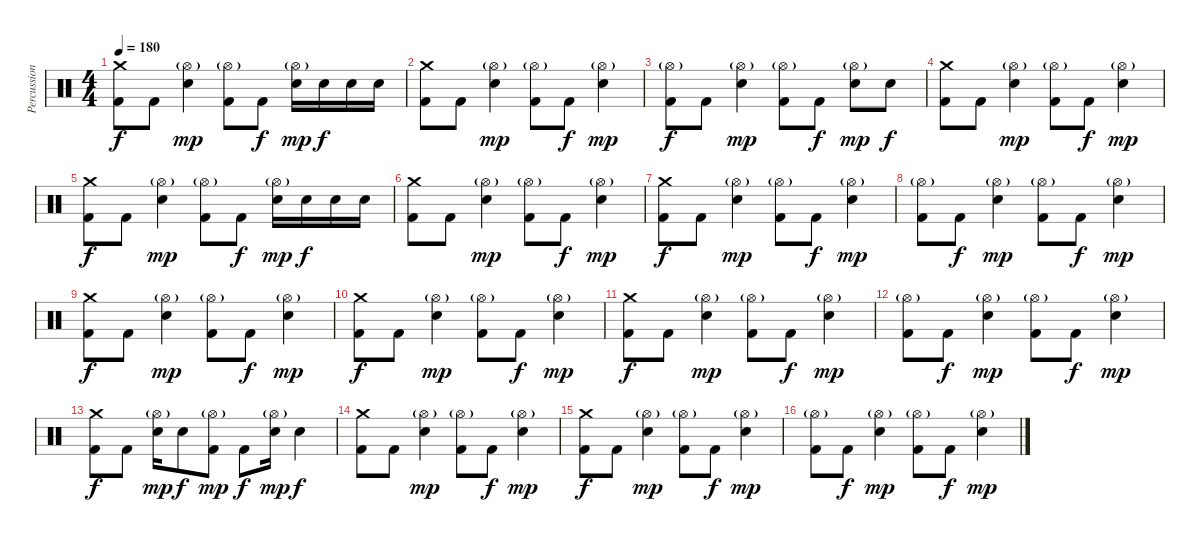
\track ("Percussions" "Percussion") {instrument percussion}
\staff {score}
\articulation defaults
\ts (4 4)
\tempo 180
\clef neutral
\ks c
("Crash medium (hit)" "Kick (hit) 2").8{dy f} "Kick (hit) 2".8 ("Snare (hit) 2" "Hi-Hat (open)"{g}).4{dy mp} ("Hi-Hat (open)"{g} "Kick (hit) 2").8 "Kick (hit) 2".8{dy f} ("Snare (hit) 2" "Hi-Hat (open)"{g}).16{dy mp} "Snare (hit) 2".16{dy f} "Snare (hit) 2".16 "Snare (hit) 2".16 |
("Crash medium (hit)" "Kick (hit) 2").8 "Kick (hit) 2".8 ("Snare (hit) 2" "Hi-Hat (open)"{g}).4{dy mp} ("Hi-Hat (open)"{g} "Kick (hit) 2").8 "Kick (hit) 2".8{dy f} ("Snare (hit) 2" "Hi-Hat (open)"{g}).4{dy mp} |
("Hi-Hat (open)"{g} "Kick (hit) 2").8{dy f} "Kick (hit) 2".8 ("Snare (hit) 2" "Hi-Hat (open)"{g}).4{dy mp} ("Hi-Hat (open)"{g} "Kick (hit) 2").8 "Kick (hit) 2".8{dy f} ("Snare (hit) 2" "Hi-Hat (open)"{g}).8{dy mp} "Snare (hit) 2".8{dy f} |
("Crash medium (hit)" "Kick (hit) 2").8 "Kick (hit) 2".8 ("Snare (hit) 2" "Hi-Hat (open)"{g}).4{dy mp} ("Hi-Hat (open)"{g} "Kick (hit) 2").8 "Kick (hit) 2".8{dy f} ("Snare (hit) 2" "Hi-Hat (open)"{g}).4{dy mp} |
("Crash medium (hit)" "Kick (hit) 2").8{dy f} "Kick (hit) 2".8 ("Snare (hit) 2" "Hi-Hat (open)"{g}).4{dy mp} ("Hi-Hat (open)"{g} "Kick (hit) 2").8 "Kick (hit) 2".8{dy f} ("Snare (hit) 2" "Hi-Hat (open)"{g}).16{dy mp} "Snare (hit) 2".16{dy f} "Snare (hit) 2".16 "Snare (hit) 2".16 |
("Crash medium (hit)" "Kick (hit) 2").8 "Kick (hit) 2".8 ("Snare (hit) 2" "Hi-Hat (open)"{g}).4{dy mp} ("Hi-Hat (open)"{g} "Kick (hit) 2").8 "Kick (hit) 2".8{dy f} ("Snare (hit) 2" "Hi-Hat (open)"{g}).4{dy mp} |
("Crash medium (hit)" "Kick (hit) 2").8{dy f} "Kick (hit) 2".8 ("Snare (hit) 2" "Hi-Hat (open)"{g}).4{dy mp} ("Hi-Hat (open)"{g} "Kick (hit) 2").8 "Kick (hit) 2".8{dy f} ("Snare (hit) 2" "Hi-Hat (open)"{g}).4{dy mp} |
("Hi-Hat (open)"{g} "Kick (hit) 2").8 "Kick (hit) 2".8{dy f} ("Snare (hit) 2" "Hi-Hat (open)"{g}).4{dy mp} ("Hi-Hat (open)"{g} "Kick (hit) 2").8 "Kick (hit) 2".8{dy f} ("Snare (hit) 2" "Hi-Hat (open)"{g}).4{dy mp} |
("Crash medium (hit)" "Kick (hit) 2").8{dy f} "Kick (hit) 2".8 ("Snare (hit) 2" "Hi-Hat (open)"{g}).4{dy mp} ("Hi-Hat (open)"{g} "Kick (hit) 2").8 "Kick (hit) 2".8{dy f} ("Snare (hit) 2" "Hi-Hat (open)"{g}).4{dy mp} |
("Crash medium (hit)" "Kick (hit) 2").8{dy f} "Kick (hit) 2".8 ("Snare (hit) 2" "Hi-Hat (open)"{g}).4{dy mp} ("Hi-Hat (open)"{g} "Kick (hit) 2").8 "Kick (hit) 2".8{dy f} ("Snare (hit) 2" "Hi-Hat (open)"{g}).4{dy mp} |
("Crash medium (hit)" "Kick (hit) 2").8{dy f} "Kick (hit) 2".8 ("Snare (hit) 2" "Hi-Hat (open)"{g}).4{dy mp} ("Hi-Hat (open)"{g} "Kick (hit) 2").8 "Kick (hit) 2".8{dy f} ("Snare (hit) 2" "Hi-Hat (open)"{g}).4{dy mp} |
("Hi-Hat (open)"{g} "Kick (hit) 2").8 "Kick (hit) 2".8{dy f} ("Snare (hit) 2" "Hi-Hat (open)"{g}).4{dy mp} ("Hi-Hat (open)"{g} "Kick (hit) 2").8 "Kick (hit) 2".8{dy f} ("Snare (hit) 2" "Hi-Hat (open)"{g}).4{dy mp} |
("Crash medium (hit)" "Kick (hit) 2").8{dy f} "Kick (hit) 2".8 ("Snare (hit) 2" "Hi-Hat (open)"{g}).16{dy mp} "Snare (hit) 2".8{dy f} ("Hi-Hat (open)"{g} "Kick (hit) 2").8{dy mp} "Kick (hit) 2".8{dy f} ("Snare (hit) 2" "Hi-Hat (open)"{g}).16{dy mp} "Snare (hit) 2".4{dy f} |
("Crash medium (hit)" "Kick (hit) 2").8 "Kick (hit) 2".8 ("Snare (hit) 2" "Hi-Hat (open)"{g}).4{dy mp} ("Hi-Hat (open)"{g} "Kick (hit) 2").8 "Kick (hit) 2".8{dy f} ("Snare (hit) 2" "Hi-Hat (open)"{g}).4{dy mp} |
("Crash medium (hit)" "Kick (hit) 2").8{dy f} "Kick (hit) 2".8 ("Snare (hit) 2" "Hi-Hat (open)"{g}).4{dy mp} ("Hi-Hat (open)"{g} "Kick (hit) 2").8 "Kick (hit) 2".8{dy f} ("Snare (hit) 2" "Hi-Hat (open)"{g}).4{dy mp} |
("Hi-Hat (open)"{g} "Kick (hit) 2").8 "Kick (hit) 2".8{dy f} ("Snare (hit) 2" "Hi-Hat (open)"{g}).4{dy mp} ("Hi-Hat (open)"{g} "Kick (hit) 2").8 "Kick (hit) 2".8{dy f} ("Snare (hit) 2" "Hi-Hat (open)"{g}).4{dy mp}
